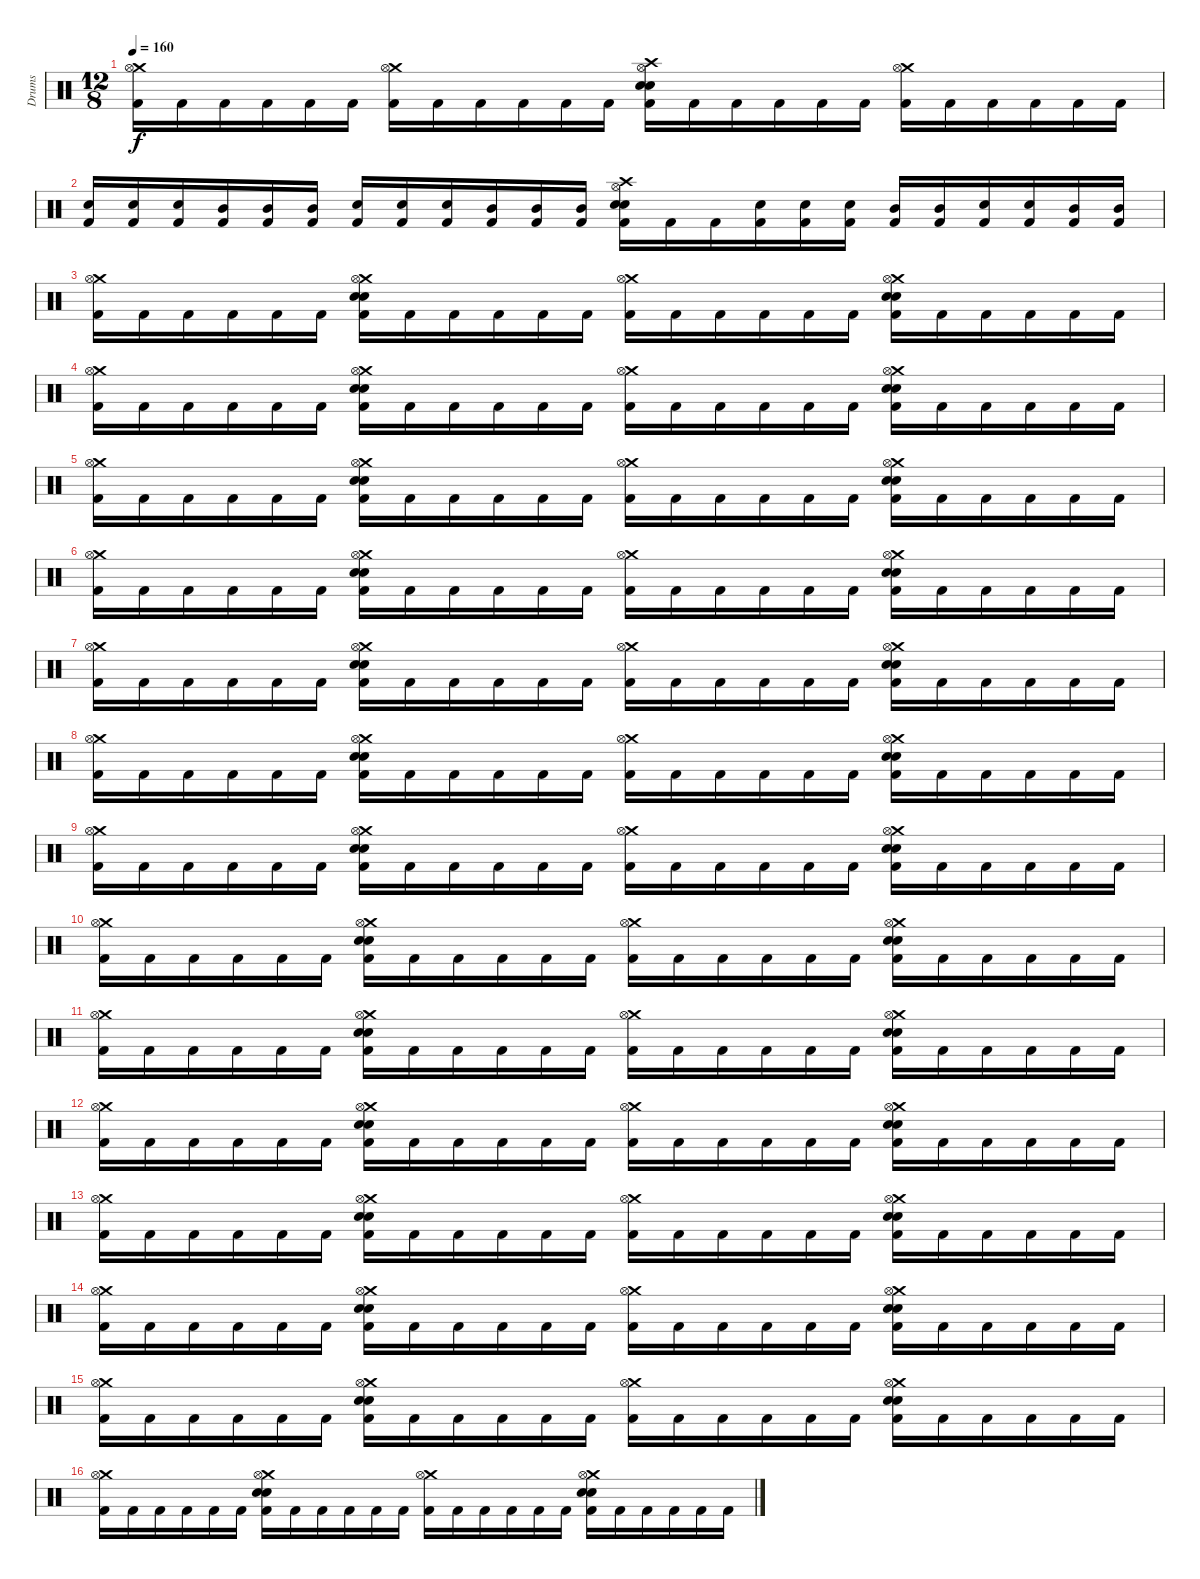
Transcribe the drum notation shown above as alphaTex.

\track ("Drums" "Drums") {instrument percussion}
\staff {score}
\articulation defaults
\ts (12 8)
\tempo 160
\clef neutral
\ks c
("Crash medium (hit)" "Hi-Hat (open)" "Kick (hit) 2").16{dy f} "Kick (hit) 2".16 "Kick (hit) 2".16 "Kick (hit) 2".16 "Kick (hit) 2".16 "Kick (hit) 2".16 ("Crash medium (hit)" "Hi-Hat (open)" "Kick (hit) 2").16 "Kick (hit) 2".16 "Kick (hit) 2".16 "Kick (hit) 2".16 "Kick (hit) 2".16 "Kick (hit) 2".16 ("Crash high (hit)" "Hi-Hat (open)" "Electric Snare (hit)" "Electric Snare (hit)" "Kick (hit) 2").16 "Kick (hit) 2".16 "Kick (hit) 2".16 "Kick (hit) 2".16 "Kick (hit) 2".16 "Kick (hit) 2".16 ("Crash medium (hit)" "Hi-Hat (open)" "Kick (hit) 2").16 "Kick (hit) 2".16 "Kick (hit) 2".16 "Kick (hit) 2".16 "Kick (hit) 2".16 "Kick (hit) 2".16 |
("Electric Snare (hit)" "Kick (hit) 2").16 ("Electric Snare (hit)" "Kick (hit) 2").16 ("Electric Snare (hit)" "Kick (hit) 2").16 ("Mid Tom (hit)" "Kick (hit) 2").16 ("Mid Tom (hit)" "Kick (hit) 2").16 ("Mid Tom (hit)" "Kick (hit) 2").16 ("Electric Snare (hit)" "Kick (hit) 2").16 ("Electric Snare (hit)" "Kick (hit) 2").16 ("Electric Snare (hit)" "Kick (hit) 2").16 ("Mid Tom (hit)" "Kick (hit) 2").16 ("Mid Tom (hit)" "Kick (hit) 2").16 ("Mid Tom (hit)" "Kick (hit) 2").16 ("Crash high (hit)" "Hi-Hat (open)" "Electric Snare (hit)" "Electric Snare (hit)" "Kick (hit) 2").16 "Kick (hit) 2".16 "Kick (hit) 2".16 ("Electric Snare (hit)" "Kick (hit) 2").16 ("Electric Snare (hit)" "Kick (hit) 2").16 ("Electric Snare (hit)" "Kick (hit) 2").16 ("Mid Tom (hit)" "Kick (hit) 2").16 ("Mid Tom (hit)" "Kick (hit) 2").16 ("Electric Snare (hit)" "Kick (hit) 2").16 ("Electric Snare (hit)" "Kick (hit) 2").16 ("Mid Tom (hit)" "Kick (hit) 2").16 ("Mid Tom (hit)" "Kick (hit) 2").16 |
("Crash medium (hit)" "Hi-Hat (open)" "Kick (hit) 2").16{volume 16} "Kick (hit) 2".16 "Kick (hit) 2".16 "Kick (hit) 2".16 "Kick (hit) 2".16 "Kick (hit) 2".16 ("Crash medium (hit)" "Hi-Hat (open)" "Electric Snare (hit)" "Electric Snare (hit)" "Kick (hit) 2").16 "Kick (hit) 2".16 "Kick (hit) 2".16 "Kick (hit) 2".16 "Kick (hit) 2".16 "Kick (hit) 2".16 ("Crash medium (hit)" "Hi-Hat (open)" "Kick (hit) 2").16 "Kick (hit) 2".16 "Kick (hit) 2".16 "Kick (hit) 2".16 "Kick (hit) 2".16 "Kick (hit) 2".16 ("Crash medium (hit)" "Hi-Hat (open)" "Electric Snare (hit)" "Electric Snare (hit)" "Kick (hit) 2").16 "Kick (hit) 2".16 "Kick (hit) 2".16 "Kick (hit) 2".16 "Kick (hit) 2".16 "Kick (hit) 2".16 |
("Crash medium (hit)" "Hi-Hat (open)" "Kick (hit) 2").16{volume 16} "Kick (hit) 2".16 "Kick (hit) 2".16 "Kick (hit) 2".16 "Kick (hit) 2".16 "Kick (hit) 2".16 ("Crash medium (hit)" "Hi-Hat (open)" "Electric Snare (hit)" "Electric Snare (hit)" "Kick (hit) 2").16 "Kick (hit) 2".16 "Kick (hit) 2".16 "Kick (hit) 2".16 "Kick (hit) 2".16 "Kick (hit) 2".16 ("Crash medium (hit)" "Hi-Hat (open)" "Kick (hit) 2").16 "Kick (hit) 2".16 "Kick (hit) 2".16 "Kick (hit) 2".16 "Kick (hit) 2".16 "Kick (hit) 2".16 ("Crash medium (hit)" "Hi-Hat (open)" "Electric Snare (hit)" "Electric Snare (hit)" "Kick (hit) 2").16 "Kick (hit) 2".16 "Kick (hit) 2".16 "Kick (hit) 2".16 "Kick (hit) 2".16 "Kick (hit) 2".16 |
("Crash medium (hit)" "Hi-Hat (open)" "Kick (hit) 2").16{volume 16} "Kick (hit) 2".16 "Kick (hit) 2".16 "Kick (hit) 2".16 "Kick (hit) 2".16 "Kick (hit) 2".16 ("Crash medium (hit)" "Hi-Hat (open)" "Electric Snare (hit)" "Electric Snare (hit)" "Kick (hit) 2").16 "Kick (hit) 2".16 "Kick (hit) 2".16 "Kick (hit) 2".16 "Kick (hit) 2".16 "Kick (hit) 2".16 ("Crash medium (hit)" "Hi-Hat (open)" "Kick (hit) 2").16 "Kick (hit) 2".16 "Kick (hit) 2".16 "Kick (hit) 2".16 "Kick (hit) 2".16 "Kick (hit) 2".16 ("Crash medium (hit)" "Hi-Hat (open)" "Electric Snare (hit)" "Electric Snare (hit)" "Kick (hit) 2").16 "Kick (hit) 2".16 "Kick (hit) 2".16 "Kick (hit) 2".16 "Kick (hit) 2".16 "Kick (hit) 2".16 |
("Crash medium (hit)" "Hi-Hat (open)" "Kick (hit) 2").16{volume 16} "Kick (hit) 2".16 "Kick (hit) 2".16 "Kick (hit) 2".16 "Kick (hit) 2".16 "Kick (hit) 2".16 ("Crash medium (hit)" "Hi-Hat (open)" "Electric Snare (hit)" "Electric Snare (hit)" "Kick (hit) 2").16 "Kick (hit) 2".16 "Kick (hit) 2".16 "Kick (hit) 2".16 "Kick (hit) 2".16 "Kick (hit) 2".16 ("Crash medium (hit)" "Hi-Hat (open)" "Kick (hit) 2").16 "Kick (hit) 2".16 "Kick (hit) 2".16 "Kick (hit) 2".16 "Kick (hit) 2".16 "Kick (hit) 2".16 ("Crash medium (hit)" "Hi-Hat (open)" "Electric Snare (hit)" "Electric Snare (hit)" "Kick (hit) 2").16 "Kick (hit) 2".16 "Kick (hit) 2".16 "Kick (hit) 2".16 "Kick (hit) 2".16 "Kick (hit) 2".16 |
("Crash medium (hit)" "Hi-Hat (open)" "Kick (hit) 2").16{volume 16} "Kick (hit) 2".16 "Kick (hit) 2".16 "Kick (hit) 2".16 "Kick (hit) 2".16 "Kick (hit) 2".16 ("Crash medium (hit)" "Hi-Hat (open)" "Electric Snare (hit)" "Electric Snare (hit)" "Kick (hit) 2").16 "Kick (hit) 2".16 "Kick (hit) 2".16 "Kick (hit) 2".16 "Kick (hit) 2".16 "Kick (hit) 2".16 ("Crash medium (hit)" "Hi-Hat (open)" "Kick (hit) 2").16 "Kick (hit) 2".16 "Kick (hit) 2".16 "Kick (hit) 2".16 "Kick (hit) 2".16 "Kick (hit) 2".16 ("Crash medium (hit)" "Hi-Hat (open)" "Electric Snare (hit)" "Electric Snare (hit)" "Kick (hit) 2").16 "Kick (hit) 2".16 "Kick (hit) 2".16 "Kick (hit) 2".16 "Kick (hit) 2".16 "Kick (hit) 2".16 |
("Crash medium (hit)" "Hi-Hat (open)" "Kick (hit) 2").16{volume 16} "Kick (hit) 2".16 "Kick (hit) 2".16 "Kick (hit) 2".16 "Kick (hit) 2".16 "Kick (hit) 2".16 ("Crash medium (hit)" "Hi-Hat (open)" "Electric Snare (hit)" "Electric Snare (hit)" "Kick (hit) 2").16 "Kick (hit) 2".16 "Kick (hit) 2".16 "Kick (hit) 2".16 "Kick (hit) 2".16 "Kick (hit) 2".16 ("Crash medium (hit)" "Hi-Hat (open)" "Kick (hit) 2").16 "Kick (hit) 2".16 "Kick (hit) 2".16 "Kick (hit) 2".16 "Kick (hit) 2".16 "Kick (hit) 2".16 ("Crash medium (hit)" "Hi-Hat (open)" "Electric Snare (hit)" "Electric Snare (hit)" "Kick (hit) 2").16 "Kick (hit) 2".16 "Kick (hit) 2".16 "Kick (hit) 2".16 "Kick (hit) 2".16 "Kick (hit) 2".16 |
("Crash medium (hit)" "Hi-Hat (open)" "Kick (hit) 2").16{volume 16} "Kick (hit) 2".16 "Kick (hit) 2".16 "Kick (hit) 2".16 "Kick (hit) 2".16 "Kick (hit) 2".16 ("Crash medium (hit)" "Hi-Hat (open)" "Electric Snare (hit)" "Electric Snare (hit)" "Kick (hit) 2").16 "Kick (hit) 2".16 "Kick (hit) 2".16 "Kick (hit) 2".16 "Kick (hit) 2".16 "Kick (hit) 2".16 ("Crash medium (hit)" "Hi-Hat (open)" "Kick (hit) 2").16 "Kick (hit) 2".16 "Kick (hit) 2".16 "Kick (hit) 2".16 "Kick (hit) 2".16 "Kick (hit) 2".16 ("Crash medium (hit)" "Hi-Hat (open)" "Electric Snare (hit)" "Electric Snare (hit)" "Kick (hit) 2").16 "Kick (hit) 2".16 "Kick (hit) 2".16 "Kick (hit) 2".16 "Kick (hit) 2".16 "Kick (hit) 2".16 |
("Crash medium (hit)" "Hi-Hat (open)" "Kick (hit) 2").16{volume 16} "Kick (hit) 2".16 "Kick (hit) 2".16 "Kick (hit) 2".16 "Kick (hit) 2".16 "Kick (hit) 2".16 ("Crash medium (hit)" "Hi-Hat (open)" "Electric Snare (hit)" "Electric Snare (hit)" "Kick (hit) 2").16 "Kick (hit) 2".16 "Kick (hit) 2".16 "Kick (hit) 2".16 "Kick (hit) 2".16 "Kick (hit) 2".16 ("Crash medium (hit)" "Hi-Hat (open)" "Kick (hit) 2").16 "Kick (hit) 2".16 "Kick (hit) 2".16 "Kick (hit) 2".16 "Kick (hit) 2".16 "Kick (hit) 2".16 ("Crash medium (hit)" "Hi-Hat (open)" "Electric Snare (hit)" "Electric Snare (hit)" "Kick (hit) 2").16 "Kick (hit) 2".16 "Kick (hit) 2".16 "Kick (hit) 2".16 "Kick (hit) 2".16 "Kick (hit) 2".16 |
("Crash medium (hit)" "Hi-Hat (open)" "Kick (hit) 2").16{volume 16} "Kick (hit) 2".16 "Kick (hit) 2".16 "Kick (hit) 2".16 "Kick (hit) 2".16 "Kick (hit) 2".16 ("Crash medium (hit)" "Hi-Hat (open)" "Electric Snare (hit)" "Electric Snare (hit)" "Kick (hit) 2").16 "Kick (hit) 2".16 "Kick (hit) 2".16 "Kick (hit) 2".16 "Kick (hit) 2".16 "Kick (hit) 2".16 ("Crash medium (hit)" "Hi-Hat (open)" "Kick (hit) 2").16 "Kick (hit) 2".16 "Kick (hit) 2".16 "Kick (hit) 2".16 "Kick (hit) 2".16 "Kick (hit) 2".16 ("Crash medium (hit)" "Hi-Hat (open)" "Electric Snare (hit)" "Electric Snare (hit)" "Kick (hit) 2").16 "Kick (hit) 2".16 "Kick (hit) 2".16 "Kick (hit) 2".16 "Kick (hit) 2".16 "Kick (hit) 2".16 |
("Crash medium (hit)" "Hi-Hat (open)" "Kick (hit) 2").16{volume 16} "Kick (hit) 2".16 "Kick (hit) 2".16 "Kick (hit) 2".16 "Kick (hit) 2".16 "Kick (hit) 2".16 ("Crash medium (hit)" "Hi-Hat (open)" "Electric Snare (hit)" "Electric Snare (hit)" "Kick (hit) 2").16 "Kick (hit) 2".16 "Kick (hit) 2".16 "Kick (hit) 2".16 "Kick (hit) 2".16 "Kick (hit) 2".16 ("Crash medium (hit)" "Hi-Hat (open)" "Kick (hit) 2").16 "Kick (hit) 2".16 "Kick (hit) 2".16 "Kick (hit) 2".16 "Kick (hit) 2".16 "Kick (hit) 2".16 ("Crash medium (hit)" "Hi-Hat (open)" "Electric Snare (hit)" "Electric Snare (hit)" "Kick (hit) 2").16 "Kick (hit) 2".16 "Kick (hit) 2".16 "Kick (hit) 2".16 "Kick (hit) 2".16 "Kick (hit) 2".16 |
("Crash medium (hit)" "Hi-Hat (open)" "Kick (hit) 2").16{volume 16} "Kick (hit) 2".16 "Kick (hit) 2".16 "Kick (hit) 2".16 "Kick (hit) 2".16 "Kick (hit) 2".16 ("Crash medium (hit)" "Hi-Hat (open)" "Electric Snare (hit)" "Electric Snare (hit)" "Kick (hit) 2").16 "Kick (hit) 2".16 "Kick (hit) 2".16 "Kick (hit) 2".16 "Kick (hit) 2".16 "Kick (hit) 2".16 ("Crash medium (hit)" "Hi-Hat (open)" "Kick (hit) 2").16 "Kick (hit) 2".16 "Kick (hit) 2".16 "Kick (hit) 2".16 "Kick (hit) 2".16 "Kick (hit) 2".16 ("Crash medium (hit)" "Hi-Hat (open)" "Electric Snare (hit)" "Electric Snare (hit)" "Kick (hit) 2").16 "Kick (hit) 2".16 "Kick (hit) 2".16 "Kick (hit) 2".16 "Kick (hit) 2".16 "Kick (hit) 2".16 |
("Crash medium (hit)" "Hi-Hat (open)" "Kick (hit) 2").16{volume 16} "Kick (hit) 2".16 "Kick (hit) 2".16 "Kick (hit) 2".16 "Kick (hit) 2".16 "Kick (hit) 2".16 ("Crash medium (hit)" "Hi-Hat (open)" "Electric Snare (hit)" "Electric Snare (hit)" "Kick (hit) 2").16 "Kick (hit) 2".16 "Kick (hit) 2".16 "Kick (hit) 2".16 "Kick (hit) 2".16 "Kick (hit) 2".16 ("Crash medium (hit)" "Hi-Hat (open)" "Kick (hit) 2").16 "Kick (hit) 2".16 "Kick (hit) 2".16 "Kick (hit) 2".16 "Kick (hit) 2".16 "Kick (hit) 2".16 ("Crash medium (hit)" "Hi-Hat (open)" "Electric Snare (hit)" "Electric Snare (hit)" "Kick (hit) 2").16 "Kick (hit) 2".16 "Kick (hit) 2".16 "Kick (hit) 2".16 "Kick (hit) 2".16 "Kick (hit) 2".16 |
("Crash medium (hit)" "Hi-Hat (open)" "Kick (hit) 2").16{volume 16} "Kick (hit) 2".16 "Kick (hit) 2".16 "Kick (hit) 2".16 "Kick (hit) 2".16 "Kick (hit) 2".16 ("Crash medium (hit)" "Hi-Hat (open)" "Electric Snare (hit)" "Electric Snare (hit)" "Kick (hit) 2").16 "Kick (hit) 2".16 "Kick (hit) 2".16 "Kick (hit) 2".16 "Kick (hit) 2".16 "Kick (hit) 2".16 ("Crash medium (hit)" "Hi-Hat (open)" "Kick (hit) 2").16 "Kick (hit) 2".16 "Kick (hit) 2".16 "Kick (hit) 2".16 "Kick (hit) 2".16 "Kick (hit) 2".16 ("Crash medium (hit)" "Hi-Hat (open)" "Electric Snare (hit)" "Electric Snare (hit)" "Kick (hit) 2").16 "Kick (hit) 2".16 "Kick (hit) 2".16 "Kick (hit) 2".16 "Kick (hit) 2".16 "Kick (hit) 2".16 |
("Crash medium (hit)" "Hi-Hat (open)" "Kick (hit) 2").16{volume 16} "Kick (hit) 2".16 "Kick (hit) 2".16 "Kick (hit) 2".16 "Kick (hit) 2".16 "Kick (hit) 2".16 ("Crash medium (hit)" "Hi-Hat (open)" "Electric Snare (hit)" "Electric Snare (hit)" "Kick (hit) 2").16 "Kick (hit) 2".16 "Kick (hit) 2".16 "Kick (hit) 2".16 "Kick (hit) 2".16 "Kick (hit) 2".16 ("Crash medium (hit)" "Hi-Hat (open)" "Kick (hit) 2").16 "Kick (hit) 2".16 "Kick (hit) 2".16 "Kick (hit) 2".16 "Kick (hit) 2".16 "Kick (hit) 2".16 ("Crash medium (hit)" "Hi-Hat (open)" "Electric Snare (hit)" "Electric Snare (hit)" "Kick (hit) 2").16 "Kick (hit) 2".16 "Kick (hit) 2".16 "Kick (hit) 2".16 "Kick (hit) 2".16 "Kick (hit) 2".16
